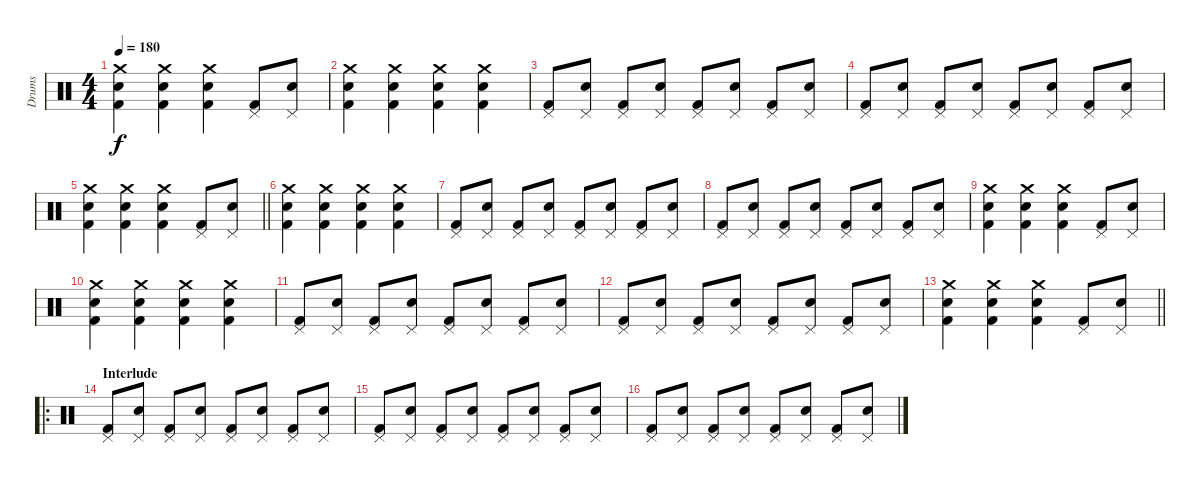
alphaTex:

\track ("Drums" "Drums") {instrument percussion}
\staff {score}
\articulation defaults
\ts (4 4)
\tempo 180
\clef neutral
\ks c
("Crash medium (hit)" "Electric Snare (hit)" "Kick (hit) 2").4{dy f} ("Crash medium (hit)" "Electric Snare (hit)" "Kick (hit) 2").4 ("Crash medium (hit)" "Electric Snare (hit)" "Kick (hit) 2").4 ("Kick (hit) 2" "Pedal Hi-Hat (hit)").8 ("Snare (hit) 2" "Pedal Hi-Hat (hit)").8 |
("Crash medium (hit)" "Electric Snare (hit)" "Kick (hit) 2").4 ("Crash medium (hit)" "Electric Snare (hit)" "Kick (hit) 2").4 ("Crash medium (hit)" "Electric Snare (hit)" "Kick (hit) 2").4 ("Crash medium (hit)" "Electric Snare (hit)" "Kick (hit) 2").4 |
("Kick (hit) 2" "Pedal Hi-Hat (hit)").8 ("Snare (hit) 2" "Pedal Hi-Hat (hit)").8 ("Kick (hit) 2" "Pedal Hi-Hat (hit)").8 ("Snare (hit) 2" "Pedal Hi-Hat (hit)").8 ("Kick (hit) 2" "Pedal Hi-Hat (hit)").8 ("Snare (hit) 2" "Pedal Hi-Hat (hit)").8 ("Kick (hit) 2" "Pedal Hi-Hat (hit)").8 ("Snare (hit) 2" "Pedal Hi-Hat (hit)").8 |
("Kick (hit) 2" "Pedal Hi-Hat (hit)").8 ("Snare (hit) 2" "Pedal Hi-Hat (hit)").8 ("Kick (hit) 2" "Pedal Hi-Hat (hit)").8 ("Snare (hit) 2" "Pedal Hi-Hat (hit)").8 ("Kick (hit) 2" "Pedal Hi-Hat (hit)").8 ("Snare (hit) 2" "Pedal Hi-Hat (hit)").8 ("Kick (hit) 2" "Pedal Hi-Hat (hit)").8 ("Snare (hit) 2" "Pedal Hi-Hat (hit)").8 |
\barLineRight lightlight
("Crash medium (hit)" "Electric Snare (hit)" "Kick (hit) 2").4 ("Crash medium (hit)" "Electric Snare (hit)" "Kick (hit) 2").4 ("Crash medium (hit)" "Electric Snare (hit)" "Kick (hit) 2").4 ("Kick (hit) 2" "Pedal Hi-Hat (hit)").8 ("Snare (hit) 2" "Pedal Hi-Hat (hit)").8 |
("Crash medium (hit)" "Electric Snare (hit)" "Kick (hit) 2").4 ("Crash medium (hit)" "Electric Snare (hit)" "Kick (hit) 2").4 ("Crash medium (hit)" "Electric Snare (hit)" "Kick (hit) 2").4 ("Crash medium (hit)" "Electric Snare (hit)" "Kick (hit) 2").4 |
("Kick (hit) 2" "Pedal Hi-Hat (hit)").8 ("Snare (hit) 2" "Pedal Hi-Hat (hit)").8 ("Kick (hit) 2" "Pedal Hi-Hat (hit)").8 ("Snare (hit) 2" "Pedal Hi-Hat (hit)").8 ("Kick (hit) 2" "Pedal Hi-Hat (hit)").8 ("Snare (hit) 2" "Pedal Hi-Hat (hit)").8 ("Kick (hit) 2" "Pedal Hi-Hat (hit)").8 ("Snare (hit) 2" "Pedal Hi-Hat (hit)").8 |
("Kick (hit) 2" "Pedal Hi-Hat (hit)").8 ("Snare (hit) 2" "Pedal Hi-Hat (hit)").8 ("Kick (hit) 2" "Pedal Hi-Hat (hit)").8 ("Snare (hit) 2" "Pedal Hi-Hat (hit)").8 ("Kick (hit) 2" "Pedal Hi-Hat (hit)").8 ("Snare (hit) 2" "Pedal Hi-Hat (hit)").8 ("Kick (hit) 2" "Pedal Hi-Hat (hit)").8 ("Snare (hit) 2" "Pedal Hi-Hat (hit)").8 |
("Crash medium (hit)" "Electric Snare (hit)" "Kick (hit) 2").4 ("Crash medium (hit)" "Electric Snare (hit)" "Kick (hit) 2").4 ("Crash medium (hit)" "Electric Snare (hit)" "Kick (hit) 2").4 ("Kick (hit) 2" "Pedal Hi-Hat (hit)").8 ("Snare (hit) 2" "Pedal Hi-Hat (hit)").8 |
("Crash medium (hit)" "Electric Snare (hit)" "Kick (hit) 2").4 ("Crash medium (hit)" "Electric Snare (hit)" "Kick (hit) 2").4 ("Crash medium (hit)" "Electric Snare (hit)" "Kick (hit) 2").4 ("Crash medium (hit)" "Electric Snare (hit)" "Kick (hit) 2").4 |
("Kick (hit) 2" "Pedal Hi-Hat (hit)").8 ("Snare (hit) 2" "Pedal Hi-Hat (hit)").8 ("Kick (hit) 2" "Pedal Hi-Hat (hit)").8 ("Snare (hit) 2" "Pedal Hi-Hat (hit)").8 ("Kick (hit) 2" "Pedal Hi-Hat (hit)").8 ("Snare (hit) 2" "Pedal Hi-Hat (hit)").8 ("Kick (hit) 2" "Pedal Hi-Hat (hit)").8 ("Snare (hit) 2" "Pedal Hi-Hat (hit)").8 |
("Kick (hit) 2" "Pedal Hi-Hat (hit)").8 ("Snare (hit) 2" "Pedal Hi-Hat (hit)").8 ("Kick (hit) 2" "Pedal Hi-Hat (hit)").8 ("Snare (hit) 2" "Pedal Hi-Hat (hit)").8 ("Kick (hit) 2" "Pedal Hi-Hat (hit)").8 ("Snare (hit) 2" "Pedal Hi-Hat (hit)").8 ("Kick (hit) 2" "Pedal Hi-Hat (hit)").8 ("Snare (hit) 2" "Pedal Hi-Hat (hit)").8 |
\barLineRight lightlight
("Crash medium (hit)" "Electric Snare (hit)" "Kick (hit) 2").4 ("Crash medium (hit)" "Electric Snare (hit)" "Kick (hit) 2").4 ("Crash medium (hit)" "Electric Snare (hit)" "Kick (hit) 2").4 ("Kick (hit) 2" "Pedal Hi-Hat (hit)").8 ("Snare (hit) 2" "Pedal Hi-Hat (hit)").8 |
\ro
\section ("" "Interlude")
("Kick (hit) 2" "Pedal Hi-Hat (hit)").8 ("Snare (hit) 2" "Pedal Hi-Hat (hit)").8 ("Kick (hit) 2" "Pedal Hi-Hat (hit)").8 ("Snare (hit) 2" "Pedal Hi-Hat (hit)").8 ("Kick (hit) 2" "Pedal Hi-Hat (hit)").8 ("Snare (hit) 2" "Pedal Hi-Hat (hit)").8 ("Kick (hit) 2" "Pedal Hi-Hat (hit)").8 ("Snare (hit) 2" "Pedal Hi-Hat (hit)").8 |
("Kick (hit) 2" "Pedal Hi-Hat (hit)").8 ("Snare (hit) 2" "Pedal Hi-Hat (hit)").8 ("Kick (hit) 2" "Pedal Hi-Hat (hit)").8 ("Snare (hit) 2" "Pedal Hi-Hat (hit)").8 ("Kick (hit) 2" "Pedal Hi-Hat (hit)").8 ("Snare (hit) 2" "Pedal Hi-Hat (hit)").8 ("Kick (hit) 2" "Pedal Hi-Hat (hit)").8 ("Snare (hit) 2" "Pedal Hi-Hat (hit)").8 |
("Kick (hit) 2" "Pedal Hi-Hat (hit)").8 ("Snare (hit) 2" "Pedal Hi-Hat (hit)").8 ("Kick (hit) 2" "Pedal Hi-Hat (hit)").8 ("Snare (hit) 2" "Pedal Hi-Hat (hit)").8 ("Kick (hit) 2" "Pedal Hi-Hat (hit)").8 ("Snare (hit) 2" "Pedal Hi-Hat (hit)").8 ("Kick (hit) 2" "Pedal Hi-Hat (hit)").8 ("Snare (hit) 2" "Pedal Hi-Hat (hit)").8
